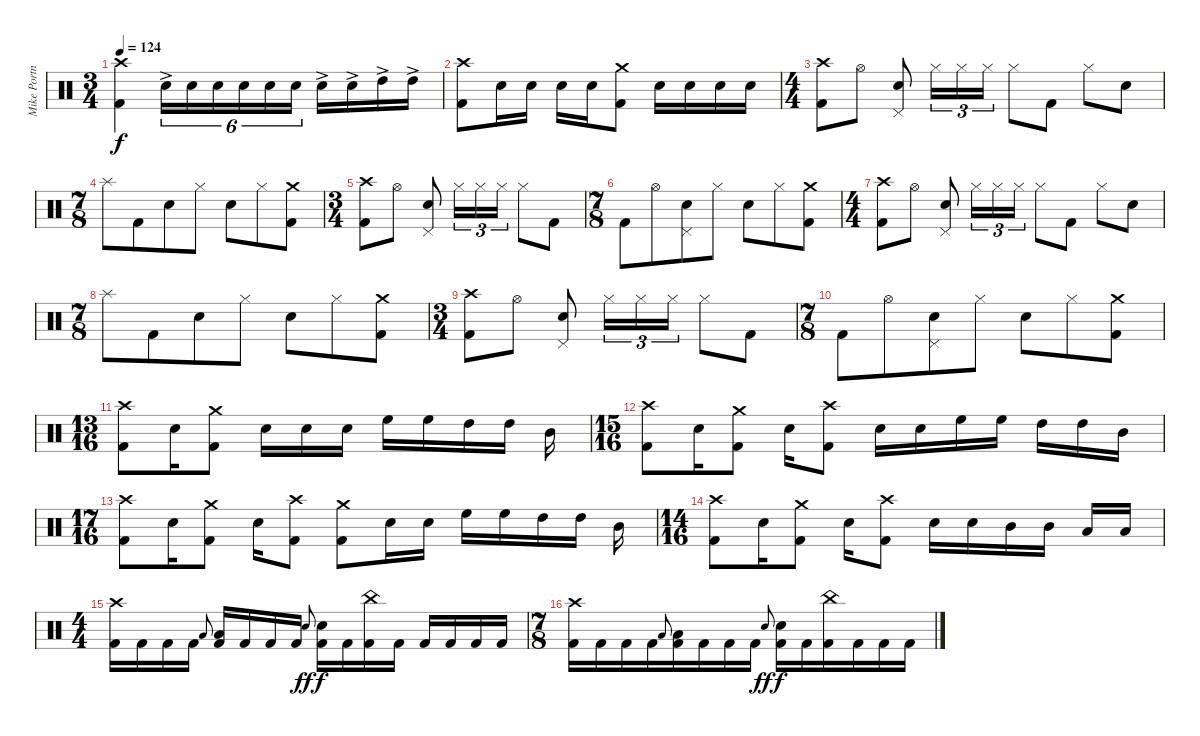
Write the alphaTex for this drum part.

\track ("Mike Portnoy" "Mike Portn") {instrument percussion}
\staff {score}
\articulation defaults
\ts (3 4)
\tempo 124
\clef neutral
\ks c
("Crash high (hit)" "Kick (hit) 2").4{dy f} "Electric Snare (hit)"{ac}.16{tu (6 4)} "Electric Snare (hit)".16{tu (6 4)} "Electric Snare (hit)".16{tu (6 4)} "Electric Snare (hit)".16{tu (6 4)} "Electric Snare (hit)".16{tu (6 4)} "Electric Snare (hit)".16{tu (6 4)} "Electric Snare (hit)"{ac}.16 "Electric Snare (hit)"{ac}.16 "High Tom (hit)"{ac}.16 "High Tom (hit)"{ac}.16 |
("Crash high (hit)" "Kick (hit) 2").8 "Electric Snare (hit)".16 "Electric Snare (hit)".16 "Electric Snare (hit)".16 "Electric Snare (hit)".16 ("Crash medium (hit)" "Kick (hit) 2").8 "Electric Snare (hit)".16 "Electric Snare (hit)".16 "Electric Snare (hit)".16 "Electric Snare (hit)".16 |
\ts (4 4)
("Crash high (hit)" "Kick (hit) 2").8 "Hi-Hat (open)".8 ("Pedal Hi-Hat (hit)" "Electric Snare (hit)").8 "Hi-Hat (closed)".16{tu (3 2)} "Hi-Hat (closed)".16{tu (3 2)} "Hi-Hat (closed)".16{tu (3 2)} "Hi-Hat (closed)".8 "Kick (hit) 2".8 "Hi-Hat (closed)".8 "Electric Snare (hit)".8 |
\ts (7 8)
"Splash (hit)".8 "Kick (hit) 2".8 "Electric Snare (hit)".8 "Hi-Hat (closed)".8 "Electric Snare (hit)".8 "Hi-Hat (closed)".8 ("Crash medium (hit)" "Kick (hit) 2").8 |
\ts (3 4)
("Crash high (hit)" "Kick (hit) 2").8 "Hi-Hat (open)".8 ("Pedal Hi-Hat (hit)" "Electric Snare (hit)").8 "Hi-Hat (closed)".16{tu (3 2)} "Hi-Hat (closed)".16{tu (3 2)} "Hi-Hat (closed)".16{tu (3 2)} "Hi-Hat (closed)".8 "Kick (hit) 2".8 |
\ts (7 8)
"Kick (hit) 2".8 "Hi-Hat (open)".8 ("Pedal Hi-Hat (hit)" "Electric Snare (hit)").8 "Hi-Hat (closed)".8 "Electric Snare (hit)".8 "Hi-Hat (closed)".8 ("Crash medium (hit)" "Kick (hit) 2").8 |
\ts (4 4)
("Crash high (hit)" "Kick (hit) 2").8 "Hi-Hat (open)".8 ("Pedal Hi-Hat (hit)" "Electric Snare (hit)").8 "Hi-Hat (closed)".16{tu (3 2)} "Hi-Hat (closed)".16{tu (3 2)} "Hi-Hat (closed)".16{tu (3 2)} "Hi-Hat (closed)".8 "Kick (hit) 2".8 "Hi-Hat (closed)".8 "Electric Snare (hit)".8 |
\ts (7 8)
"Splash (hit)".8 "Kick (hit) 2".8 "Electric Snare (hit)".8 "Hi-Hat (closed)".8 "Electric Snare (hit)".8 "Hi-Hat (closed)".8 ("Crash medium (hit)" "Kick (hit) 2").8 |
\ts (3 4)
("Crash high (hit)" "Kick (hit) 2").8 "Hi-Hat (open)".8 ("Pedal Hi-Hat (hit)" "Electric Snare (hit)").8 "Hi-Hat (closed)".16{tu (3 2)} "Hi-Hat (closed)".16{tu (3 2)} "Hi-Hat (closed)".16{tu (3 2)} "Hi-Hat (closed)".8 "Kick (hit) 2".8 |
\ts (7 8)
"Kick (hit) 2".8 "Hi-Hat (open)".8 ("Pedal Hi-Hat (hit)" "Electric Snare (hit)").8 "Hi-Hat (closed)".8 "Electric Snare (hit)".8 "Hi-Hat (closed)".8 ("Crash medium (hit)" "Kick (hit) 2").8 |
\ts (13 16)
("Crash high (hit)" "Kick (hit) 2").8 "Electric Snare (hit)".16 ("Crash medium (hit)" "Kick (hit) 2").8 "Electric Snare (hit)".16 "Electric Snare (hit)".16 "Electric Snare (hit)".16 "High Floor Tom (hit)".16 "High Floor Tom (hit)".16 "High Tom (hit)".16 "High Tom (hit)".16 "Mid Tom (hit)".16 |
\ts (15 16)
("Crash high (hit)" "Kick (hit) 2").8 "Electric Snare (hit)".16 ("Crash medium (hit)" "Kick (hit) 2").8 "Electric Snare (hit)".16 ("Crash high (hit)" "Kick (hit) 2").8 "Electric Snare (hit)".16 "Electric Snare (hit)".16 "High Floor Tom (hit)".16 "High Floor Tom (hit)".16 "High Tom (hit)".16 "High Tom (hit)".16 "Mid Tom (hit)".16 |
\ts (17 16)
("Crash high (hit)" "Kick (hit) 2").8 "Electric Snare (hit)".16 ("Crash medium (hit)" "Kick (hit) 2").8 "Electric Snare (hit)".16 ("Crash high (hit)" "Kick (hit) 2").8 ("Crash medium (hit)" "Kick (hit) 2").8 "Electric Snare (hit)".16 "Electric Snare (hit)".16 "High Floor Tom (hit)".16 "High Floor Tom (hit)".16 "High Tom (hit)".16 "High Tom (hit)".16 "Mid Tom (hit)".16 |
\ts (14 16)
("Crash high (hit)" "Kick (hit) 2").8 "Electric Snare (hit)".16 ("Crash medium (hit)" "Kick (hit) 2").8 "Electric Snare (hit)".16 ("Crash high (hit)" "Kick (hit) 2").8 "Electric Snare (hit)".16 "Electric Snare (hit)".16 "Mid Tom (hit)".16 "Mid Tom (hit)".16 "Low Tom (hit)".16 "Low Tom (hit)".16 |
\ts (4 4)
("Crash high (hit)" "Kick (hit) 2").16 "Kick (hit) 2".16 "Kick (hit) 2".16 "Kick (hit) 2".16 "Low Tom (hit)".8{gr onbeat} ("Low Tom (hit)" "Kick (hit) 2").16 "Kick (hit) 2".16 "Kick (hit) 2".16 "Kick (hit) 2".16 "Electric Snare (hit)".8{gr onbeat dy ff} ("Electric Snare (hit)" "Kick (hit) 2").16{dy f} "Kick (hit) 2".16 ("China (hit)" "Kick (hit) 2").16 "Kick (hit) 2".16 "Kick (hit) 2".16 "Kick (hit) 2".16 "Kick (hit) 2".16 "Kick (hit) 2".16 |
\ts (7 8)
("Crash high (hit)" "Kick (hit) 2").16 "Kick (hit) 2".16 "Kick (hit) 2".16 "Kick (hit) 2".16 "Low Tom (hit)".8{gr onbeat} ("Low Tom (hit)" "Kick (hit) 2").16 "Kick (hit) 2".16 "Kick (hit) 2".16 "Kick (hit) 2".16 "Electric Snare (hit)".8{gr onbeat dy ff} ("Electric Snare (hit)" "Kick (hit) 2").16{dy f} "Kick (hit) 2".16 ("China (hit)" "Kick (hit) 2").16 "Kick (hit) 2".16 "Kick (hit) 2".16 "Kick (hit) 2".16
